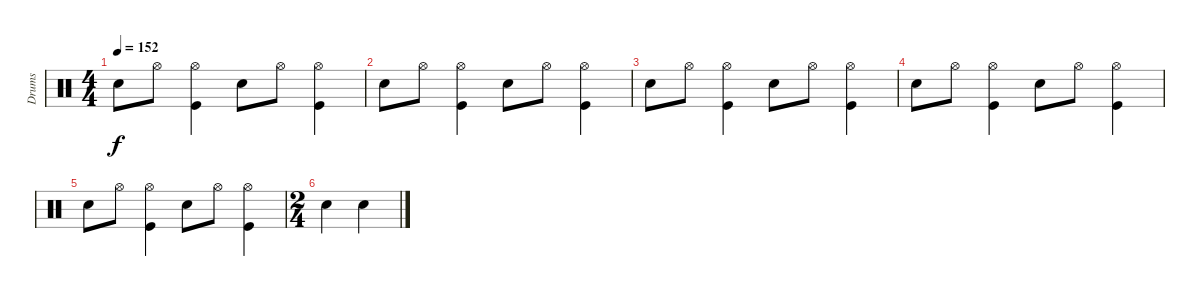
\track ("Drums" "Drums") {instrument percussion}
\staff {score}
\articulation defaults
\ts (4 4)
\tempo 152
\clef neutral
\ks c "Electric Snare (hit)".8{dy f} "Hi-Hat (open)".8
("Kick (hit)" "Hi-Hat (open)").4 "Electric Snare (hit)".8 "Hi-Hat (open)".8 ("Kick (hit)" "Hi-Hat (open)").4 |
"Electric Snare (hit)".8 "Hi-Hat (open)".8 ("Kick (hit)" "Hi-Hat (open)").4 "Electric Snare (hit)".8 "Hi-Hat (open)".8 ("Kick (hit)" "Hi-Hat (open)").4 |
"Electric Snare (hit)".8 "Hi-Hat (open)".8 ("Kick (hit)" "Hi-Hat (open)").4 "Electric Snare (hit)".8 "Hi-Hat (open)".8 ("Kick (hit)" "Hi-Hat (open)").4 |
"Electric Snare (hit)".8 "Hi-Hat (open)".8 ("Kick (hit)" "Hi-Hat (open)").4 "Electric Snare (hit)".8 "Hi-Hat (open)".8 ("Kick (hit)" "Hi-Hat (open)").4 |
"Electric Snare (hit)".8 "Hi-Hat (open)".8 ("Kick (hit)" "Hi-Hat (open)").4 "Electric Snare (hit)".8 "Hi-Hat (open)".8 ("Kick (hit)" "Hi-Hat (open)").4 |
\ts (2 4)
"Electric Snare (hit)".4 "Electric Snare (hit)".4
